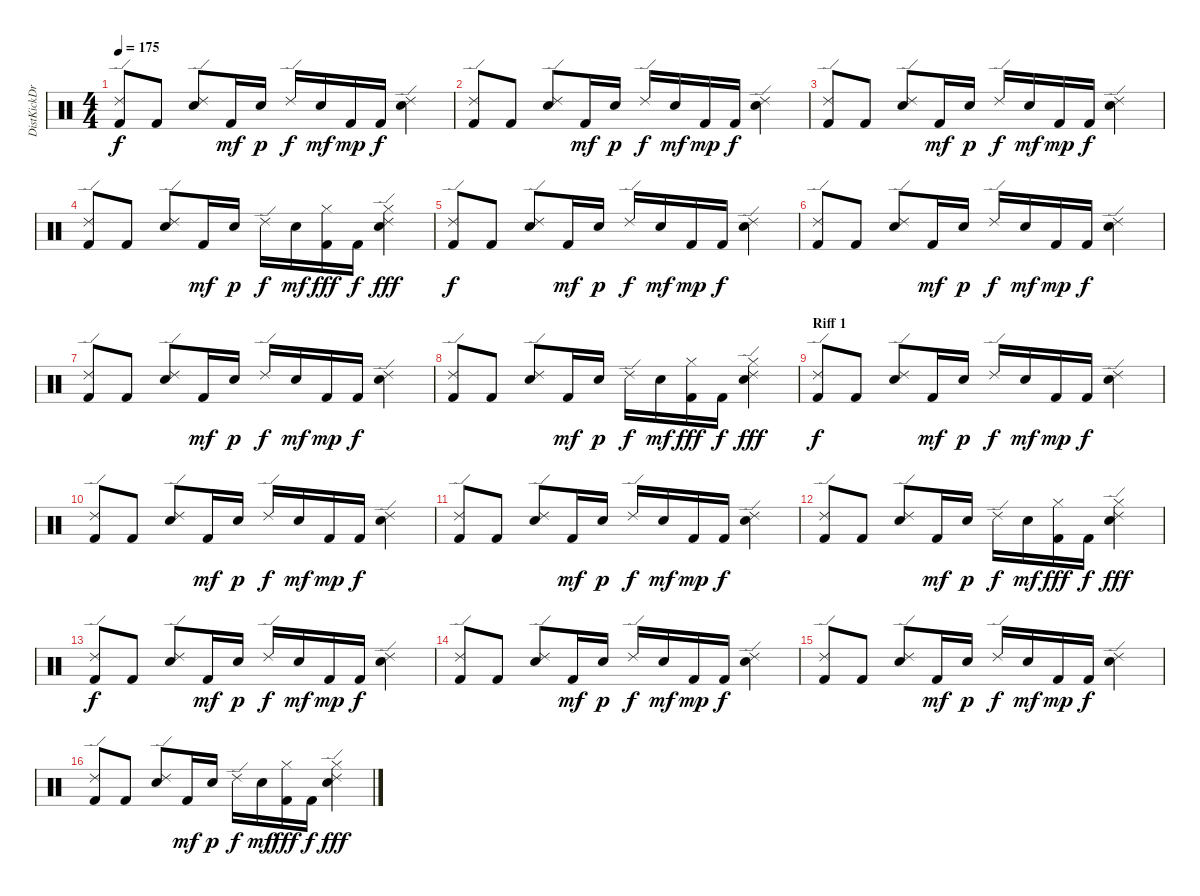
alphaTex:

\track ("DistKickDrums" "DistKickDr") {instrument percussion}
\staff {score}
\articulation defaults
\ts (4 4)
\tempo 175
\clef neutral
\ks c
("Kick (hit) 2" "Ride (edge) 2").8{dy f} "Kick (hit) 2".8 ("Snare (hit) 2" "Ride (edge) 2").8 "Kick (hit) 2".16{dy mf} "Snare (hit) 2".16{dy p} "Ride (edge) 2".16{dy f} "Snare (hit) 2".16{dy mf} "Kick (hit) 2".16{dy mp} "Kick (hit) 2".16{dy f} ("Snare (hit) 2" "Ride (edge) 2").4 |
("Kick (hit) 2" "Ride (edge) 2").8 "Kick (hit) 2".8 ("Snare (hit) 2" "Ride (edge) 2").8 "Kick (hit) 2".16{dy mf} "Snare (hit) 2".16{dy p} "Ride (edge) 2".16{dy f} "Snare (hit) 2".16{dy mf} "Kick (hit) 2".16{dy mp} "Kick (hit) 2".16{dy f} ("Snare (hit) 2" "Ride (edge) 2").4 |
("Kick (hit) 2" "Ride (edge) 2").8 "Kick (hit) 2".8 ("Snare (hit) 2" "Ride (edge) 2").8 "Kick (hit) 2".16{dy mf} "Snare (hit) 2".16{dy p} "Ride (edge) 2".16{dy f} "Snare (hit) 2".16{dy mf} "Kick (hit) 2".16{dy mp} "Kick (hit) 2".16{dy f} ("Snare (hit) 2" "Ride (edge) 2").4 |
("Kick (hit) 2" "Ride (edge) 2").8 "Kick (hit) 2".8 ("Snare (hit) 2" "Ride (edge) 2").8 "Kick (hit) 2".16{dy mf} "Snare (hit) 2".16{dy p} "Ride (edge) 2".16{dy f} "Snare (hit) 2".16{dy mf} ("Kick (hit) 2" "Cowbell high (tip)").16{dy fff} "Kick (hit) 2".16{dy f} ("Snare (hit) 2" "Ride (edge) 2" "Cowbell high (tip)").4{dy fff} |
("Kick (hit) 2" "Ride (edge) 2").8{dy f} "Kick (hit) 2".8 ("Snare (hit) 2" "Ride (edge) 2").8 "Kick (hit) 2".16{dy mf} "Snare (hit) 2".16{dy p} "Ride (edge) 2".16{dy f} "Snare (hit) 2".16{dy mf} "Kick (hit) 2".16{dy mp} "Kick (hit) 2".16{dy f} ("Snare (hit) 2" "Ride (edge) 2").4 |
("Kick (hit) 2" "Ride (edge) 2").8 "Kick (hit) 2".8 ("Snare (hit) 2" "Ride (edge) 2").8 "Kick (hit) 2".16{dy mf} "Snare (hit) 2".16{dy p} "Ride (edge) 2".16{dy f} "Snare (hit) 2".16{dy mf} "Kick (hit) 2".16{dy mp} "Kick (hit) 2".16{dy f} ("Snare (hit) 2" "Ride (edge) 2").4 |
("Kick (hit) 2" "Ride (edge) 2").8 "Kick (hit) 2".8 ("Snare (hit) 2" "Ride (edge) 2").8 "Kick (hit) 2".16{dy mf} "Snare (hit) 2".16{dy p} "Ride (edge) 2".16{dy f} "Snare (hit) 2".16{dy mf} "Kick (hit) 2".16{dy mp} "Kick (hit) 2".16{dy f} ("Snare (hit) 2" "Ride (edge) 2").4 |
("Kick (hit) 2" "Ride (edge) 2").8 "Kick (hit) 2".8 ("Snare (hit) 2" "Ride (edge) 2").8 "Kick (hit) 2".16{dy mf} "Snare (hit) 2".16{dy p} "Ride (edge) 2".16{dy f} "Snare (hit) 2".16{dy mf} ("Kick (hit) 2" "Cowbell high (tip)").16{dy fff} "Kick (hit) 2".16{dy f} ("Snare (hit) 2" "Ride (edge) 2" "Cowbell high (tip)").4{dy fff} |
\section ("" "Riff 1")
("Kick (hit) 2" "Ride (edge) 2").8{dy f} "Kick (hit) 2".8 ("Snare (hit) 2" "Ride (edge) 2").8 "Kick (hit) 2".16{dy mf} "Snare (hit) 2".16{dy p} "Ride (edge) 2".16{dy f} "Snare (hit) 2".16{dy mf} "Kick (hit) 2".16{dy mp} "Kick (hit) 2".16{dy f} ("Snare (hit) 2" "Ride (edge) 2").4 |
("Kick (hit) 2" "Ride (edge) 2").8 "Kick (hit) 2".8 ("Snare (hit) 2" "Ride (edge) 2").8 "Kick (hit) 2".16{dy mf} "Snare (hit) 2".16{dy p} "Ride (edge) 2".16{dy f} "Snare (hit) 2".16{dy mf} "Kick (hit) 2".16{dy mp} "Kick (hit) 2".16{dy f} ("Snare (hit) 2" "Ride (edge) 2").4 |
("Kick (hit) 2" "Ride (edge) 2").8 "Kick (hit) 2".8 ("Snare (hit) 2" "Ride (edge) 2").8 "Kick (hit) 2".16{dy mf} "Snare (hit) 2".16{dy p} "Ride (edge) 2".16{dy f} "Snare (hit) 2".16{dy mf} "Kick (hit) 2".16{dy mp} "Kick (hit) 2".16{dy f} ("Snare (hit) 2" "Ride (edge) 2").4 |
("Kick (hit) 2" "Ride (edge) 2").8 "Kick (hit) 2".8 ("Snare (hit) 2" "Ride (edge) 2").8 "Kick (hit) 2".16{dy mf} "Snare (hit) 2".16{dy p} "Ride (edge) 2".16{dy f} "Snare (hit) 2".16{dy mf} ("Kick (hit) 2" "Cowbell high (tip)").16{dy fff} "Kick (hit) 2".16{dy f} ("Snare (hit) 2" "Ride (edge) 2" "Cowbell high (tip)").4{dy fff} |
("Kick (hit) 2" "Ride (edge) 2").8{dy f} "Kick (hit) 2".8 ("Snare (hit) 2" "Ride (edge) 2").8 "Kick (hit) 2".16{dy mf} "Snare (hit) 2".16{dy p} "Ride (edge) 2".16{dy f} "Snare (hit) 2".16{dy mf} "Kick (hit) 2".16{dy mp} "Kick (hit) 2".16{dy f} ("Snare (hit) 2" "Ride (edge) 2").4 |
("Kick (hit) 2" "Ride (edge) 2").8 "Kick (hit) 2".8 ("Snare (hit) 2" "Ride (edge) 2").8 "Kick (hit) 2".16{dy mf} "Snare (hit) 2".16{dy p} "Ride (edge) 2".16{dy f} "Snare (hit) 2".16{dy mf} "Kick (hit) 2".16{dy mp} "Kick (hit) 2".16{dy f} ("Snare (hit) 2" "Ride (edge) 2").4 |
("Kick (hit) 2" "Ride (edge) 2").8 "Kick (hit) 2".8 ("Snare (hit) 2" "Ride (edge) 2").8 "Kick (hit) 2".16{dy mf} "Snare (hit) 2".16{dy p} "Ride (edge) 2".16{dy f} "Snare (hit) 2".16{dy mf} "Kick (hit) 2".16{dy mp} "Kick (hit) 2".16{dy f} ("Snare (hit) 2" "Ride (edge) 2").4 |
("Kick (hit) 2" "Ride (edge) 2").8 "Kick (hit) 2".8 ("Snare (hit) 2" "Ride (edge) 2").8 "Kick (hit) 2".16{dy mf} "Snare (hit) 2".16{dy p} "Ride (edge) 2".16{dy f} "Snare (hit) 2".16{dy mf} ("Kick (hit) 2" "Cowbell high (tip)").16{dy fff} "Kick (hit) 2".16{dy f} ("Snare (hit) 2" "Ride (edge) 2" "Cowbell high (tip)").4{dy fff}
